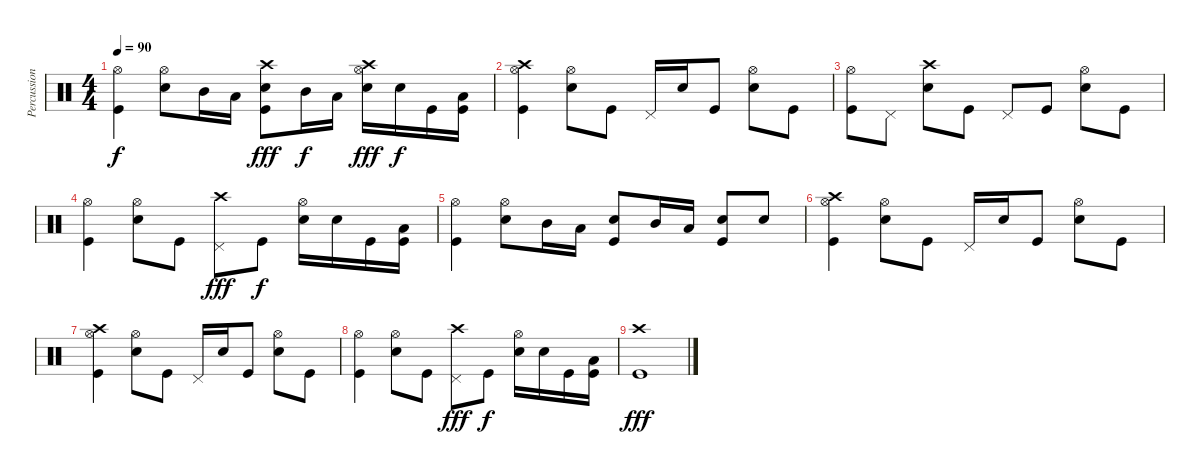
\track ("Percussion" "Percussion") {instrument percussion}
\staff {score}
\articulation defaults
\ts (4 4)
\tempo 90
\clef neutral
\ks c
("Kick (hit)" "Hi-Hat (open)").4{dy f} ("Snare (hit) 2" "Hi-Hat (open)").8 "Mid Tom (hit)".16 "Low Tom (hit)".16 ("Kick (hit)" "Snare (hit) 2" "Crash high (hit)").8{dy fff} "Mid Tom (hit)".16{dy f} "Low Tom (hit)".16 ("Snare (hit) 2" "Hi-Hat (open)" "Crash high (hit)").16{dy fff} "Snare (hit) 2".16{dy f} "Kick (hit)".16 ("Kick (hit)" "Low Tom (hit)").16 |
("Kick (hit)" "Hi-Hat (open)" "Crash high (hit)").4 ("Snare (hit) 2" "Hi-Hat (open)").8 "Kick (hit)".8 "Pedal Hi-Hat (hit)".16 "Snare (hit) 2".16 "Kick (hit)".8 ("Snare (hit) 2" "Hi-Hat (open)").8 "Kick (hit)".8 |
("Kick (hit)" "Hi-Hat (open)").8 "Pedal Hi-Hat (hit)".8 ("Snare (hit) 2" "Crash high (hit)").8 "Kick (hit)".8 "Pedal Hi-Hat (hit)".8 "Kick (hit)".8 ("Snare (hit) 2" "Hi-Hat (open)").8 "Kick (hit)".8 |
("Kick (hit)" "Hi-Hat (open)").4 ("Snare (hit) 2" "Hi-Hat (open)").8 "Kick (hit)".8 ("Crash high (hit)" "Pedal Hi-Hat (hit)").8{dy fff} "Kick (hit)".8{dy f} ("Snare (hit) 2" "Hi-Hat (open)").16 "Snare (hit) 2".16 "Kick (hit)".16 ("Kick (hit)" "Low Tom (hit)").16 |
("Kick (hit)" "Hi-Hat (open)").4 ("Snare (hit) 2" "Hi-Hat (open)").8 "Mid Tom (hit)".16 "Low Tom (hit)".16 ("Kick (hit)" "Snare (hit) 2").8 "Mid Tom (hit)".16 "Low Tom (hit)".16 ("Kick (hit)" "Snare (hit) 2").8 "Snare (hit) 2".8 |
("Kick (hit)" "Hi-Hat (open)" "Crash high (hit)").4 ("Snare (hit) 2" "Hi-Hat (open)").8 "Kick (hit)".8 "Pedal Hi-Hat (hit)".16 "Snare (hit) 2".16 "Kick (hit)".8 ("Snare (hit) 2" "Hi-Hat (open)").8 "Kick (hit)".8 |
("Kick (hit)" "Hi-Hat (open)" "Crash high (hit)").4 ("Snare (hit) 2" "Hi-Hat (open)").8 "Kick (hit)".8 "Pedal Hi-Hat (hit)".16 "Snare (hit) 2".16 "Kick (hit)".8 ("Snare (hit) 2" "Hi-Hat (open)").8 "Kick (hit)".8 |
("Kick (hit)" "Hi-Hat (open)").4 ("Snare (hit) 2" "Hi-Hat (open)").8 "Kick (hit)".8 ("Crash high (hit)" "Pedal Hi-Hat (hit)").8{dy fff} "Kick (hit)".8{dy f} ("Snare (hit) 2" "Hi-Hat (open)").16 "Snare (hit) 2".16 "Kick (hit)".16 ("Kick (hit)" "Low Tom (hit)").16 |
("Kick (hit)" "Crash high (hit)").1{dy fff}
